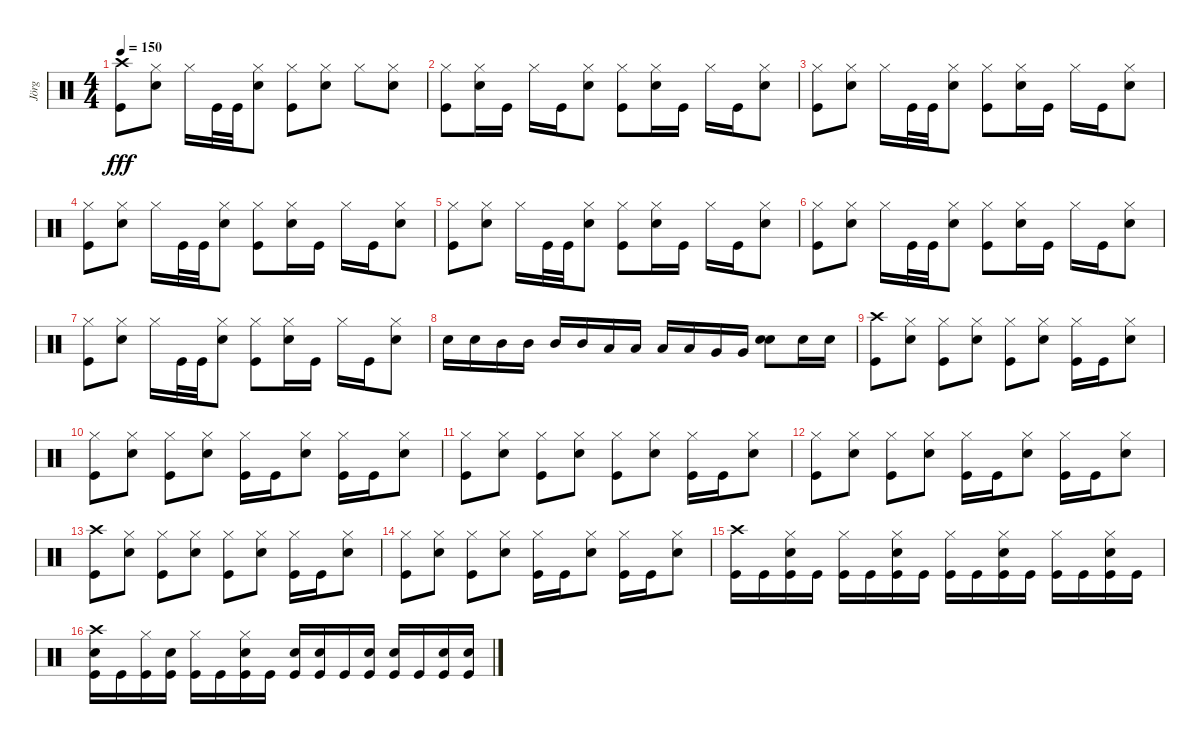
\track ("Jörg" "Jörg") {instrument percussion}
\staff {score}
\articulation defaults
\ts (4 4)
\tempo 150
\clef neutral
\ks c
("Crash high (hit)" "Kick (hit)").8{dy fff} ("Snare (hit) 2" "Hi-Hat (closed)").8 "Hi-Hat (closed)".16 "Kick (hit)".32 "Kick (hit)".32 ("Snare (hit) 2" "Hi-Hat (closed)").8 ("Kick (hit)" "Hi-Hat (closed)").8 ("Snare (hit) 2" "Hi-Hat (closed)").8 "Hi-Hat (closed)".8 ("Snare (hit) 2" "Hi-Hat (closed)").8 |
("Kick (hit)" "Hi-Hat (closed)").8 ("Snare (hit) 2" "Hi-Hat (closed)").16 "Kick (hit)".16 "Hi-Hat (closed)".16 "Kick (hit)".16 ("Snare (hit) 2" "Hi-Hat (closed)").8 ("Kick (hit)" "Hi-Hat (closed)").8 ("Snare (hit) 2" "Hi-Hat (closed)").16 "Kick (hit)".16 "Hi-Hat (closed)".16 "Kick (hit)".16 ("Snare (hit) 2" "Hi-Hat (closed)").8 |
("Hi-Hat (closed)" "Kick (hit)").8 ("Snare (hit) 2" "Hi-Hat (closed)").8 "Hi-Hat (closed)".16 "Kick (hit)".32 "Kick (hit)".32 ("Snare (hit) 2" "Hi-Hat (closed)").8 ("Kick (hit)" "Hi-Hat (closed)").8 ("Snare (hit) 2" "Hi-Hat (closed)").16 "Kick (hit)".16 "Hi-Hat (closed)".16 "Kick (hit)".16 ("Snare (hit) 2" "Hi-Hat (closed)").8 |
("Hi-Hat (closed)" "Kick (hit)").8 ("Snare (hit) 2" "Hi-Hat (closed)").8 "Hi-Hat (closed)".16 "Kick (hit)".32 "Kick (hit)".32 ("Snare (hit) 2" "Hi-Hat (closed)").8 ("Kick (hit)" "Hi-Hat (closed)").8 ("Snare (hit) 2" "Hi-Hat (closed)").16 "Kick (hit)".16 "Hi-Hat (closed)".16 "Kick (hit)".16 ("Snare (hit) 2" "Hi-Hat (closed)").8 |
("Hi-Hat (closed)" "Kick (hit)").8 ("Snare (hit) 2" "Hi-Hat (closed)").8 "Hi-Hat (closed)".16 "Kick (hit)".32 "Kick (hit)".32 ("Snare (hit) 2" "Hi-Hat (closed)").8 ("Kick (hit)" "Hi-Hat (closed)").8 ("Snare (hit) 2" "Hi-Hat (closed)").16 "Kick (hit)".16 "Hi-Hat (closed)".16 "Kick (hit)".16 ("Snare (hit) 2" "Hi-Hat (closed)").8 |
("Hi-Hat (closed)" "Kick (hit)").8 ("Snare (hit) 2" "Hi-Hat (closed)").8 "Hi-Hat (closed)".16 "Kick (hit)".32 "Kick (hit)".32 ("Snare (hit) 2" "Hi-Hat (closed)").8 ("Kick (hit)" "Hi-Hat (closed)").8 ("Snare (hit) 2" "Hi-Hat (closed)").16 "Kick (hit)".16 "Hi-Hat (closed)".16 "Kick (hit)".16 ("Snare (hit) 2" "Hi-Hat (closed)").8 |
("Hi-Hat (closed)" "Kick (hit)").8 ("Snare (hit) 2" "Hi-Hat (closed)").8 "Hi-Hat (closed)".16 "Kick (hit)".32 "Kick (hit)".32 ("Snare (hit) 2" "Hi-Hat (closed)").8 ("Kick (hit)" "Hi-Hat (closed)").8 ("Snare (hit) 2" "Hi-Hat (closed)").16 "Kick (hit)".16 "Hi-Hat (closed)".16 "Kick (hit)".16 ("Snare (hit) 2" "Hi-Hat (closed)").8 |
"Snare (hit) 2".16 "Snare (hit) 2".16 "Mid Tom (hit)".16 "Mid Tom (hit)".16 "Mid Tom (hit)".16 "Mid Tom (hit)".16 "Low Tom (hit)".16 "Low Tom (hit)".16 "Low Tom (hit)".16 "Low Tom (hit)".16 "Very Low Tom (hit)".16 "Very Low Tom (hit)".16 ("Snare (hit) 2" "Snare (hit) 2").8 "Snare (hit) 2".16 "Snare (hit) 2".16 |
("Crash high (hit)" "Kick (hit)").8 ("Snare (hit) 2" "Hi-Hat (closed)").8 ("Kick (hit)" "Hi-Hat (closed)").8 ("Snare (hit) 2" "Hi-Hat (closed)").8 ("Kick (hit)" "Hi-Hat (closed)").8 ("Snare (hit) 2" "Hi-Hat (closed)").8 ("Kick (hit)" "Hi-Hat (closed)").16 "Kick (hit)".16 ("Snare (hit) 2" "Hi-Hat (closed)").8 |
("Kick (hit)" "Hi-Hat (closed)").8 ("Snare (hit) 2" "Hi-Hat (closed)").8 ("Kick (hit)" "Hi-Hat (closed)").8 ("Snare (hit) 2" "Hi-Hat (closed)").8 ("Kick (hit)" "Hi-Hat (closed)").16 "Kick (hit)".16 ("Snare (hit) 2" "Hi-Hat (closed)").8 ("Kick (hit)" "Hi-Hat (closed)").16 "Kick (hit)".16 ("Snare (hit) 2" "Hi-Hat (closed)").8 |
("Hi-Hat (closed)" "Kick (hit)").8 ("Snare (hit) 2" "Hi-Hat (closed)").8 ("Kick (hit)" "Hi-Hat (closed)").8 ("Snare (hit) 2" "Hi-Hat (closed)").8 ("Kick (hit)" "Hi-Hat (closed)").8 ("Snare (hit) 2" "Hi-Hat (closed)").8 ("Kick (hit)" "Hi-Hat (closed)").16 "Kick (hit)".16 ("Snare (hit) 2" "Hi-Hat (closed)").8 |
("Kick (hit)" "Hi-Hat (closed)").8 ("Snare (hit) 2" "Hi-Hat (closed)").8 ("Kick (hit)" "Hi-Hat (closed)").8 ("Snare (hit) 2" "Hi-Hat (closed)").8 ("Kick (hit)" "Hi-Hat (closed)").16 "Kick (hit)".16 ("Snare (hit) 2" "Hi-Hat (closed)").8 ("Kick (hit)" "Hi-Hat (closed)").16 "Kick (hit)".16 ("Snare (hit) 2" "Hi-Hat (closed)").8 |
("Crash high (hit)" "Kick (hit)").8 ("Snare (hit) 2" "Hi-Hat (closed)").8 ("Kick (hit)" "Hi-Hat (closed)").8 ("Snare (hit) 2" "Hi-Hat (closed)").8 ("Kick (hit)" "Hi-Hat (closed)").8 ("Snare (hit) 2" "Hi-Hat (closed)").8 ("Kick (hit)" "Hi-Hat (closed)").16 "Kick (hit)".16 ("Snare (hit) 2" "Hi-Hat (closed)").8 |
("Kick (hit)" "Hi-Hat (closed)").8 ("Snare (hit) 2" "Hi-Hat (closed)").8 ("Kick (hit)" "Hi-Hat (closed)").8 ("Snare (hit) 2" "Hi-Hat (closed)").8 ("Kick (hit)" "Hi-Hat (closed)").16 "Kick (hit)".16 ("Snare (hit) 2" "Hi-Hat (closed)").8 ("Kick (hit)" "Hi-Hat (closed)").16 "Kick (hit)".16 ("Snare (hit) 2" "Hi-Hat (closed)").8 |
("Crash high (hit)" "Kick (hit)").16 "Kick (hit)".16 ("Snare (hit) 2" "Hi-Hat (closed)" "Kick (hit)").16 "Kick (hit)".16 ("Hi-Hat (closed)" "Kick (hit)").16 "Kick (hit)".16 ("Snare (hit) 2" "Hi-Hat (closed)" "Kick (hit)").16 "Kick (hit)".16 ("Hi-Hat (closed)" "Kick (hit)").16 "Kick (hit)".16 ("Snare (hit) 2" "Hi-Hat (closed)" "Kick (hit)").16 "Kick (hit)".16 ("Hi-Hat (closed)" "Kick (hit)").16 "Kick (hit)".16 ("Snare (hit) 2" "Hi-Hat (closed)" "Kick (hit)").16 "Kick (hit)".16 |
("Crash high (hit)" "Snare (hit) 2" "Kick (hit)").16 "Kick (hit)".16 ("Hi-Hat (closed)" "Kick (hit)").16 ("Snare (hit) 2" "Kick (hit)").16 ("Hi-Hat (closed)" "Kick (hit)").16 "Kick (hit)".16 ("Hi-Hat (closed)" "Snare (hit) 2" "Kick (hit)").16 "Kick (hit)".16 ("Snare (hit) 2" "Kick (hit)").16 ("Snare (hit) 2" "Kick (hit)").16 "Kick (hit)".16 ("Snare (hit) 2" "Kick (hit)").16 ("Snare (hit) 2" "Kick (hit)").16 "Kick (hit)".16 ("Snare (hit) 2" "Kick (hit)").16 ("Snare (hit) 2" "Kick (hit)").16
